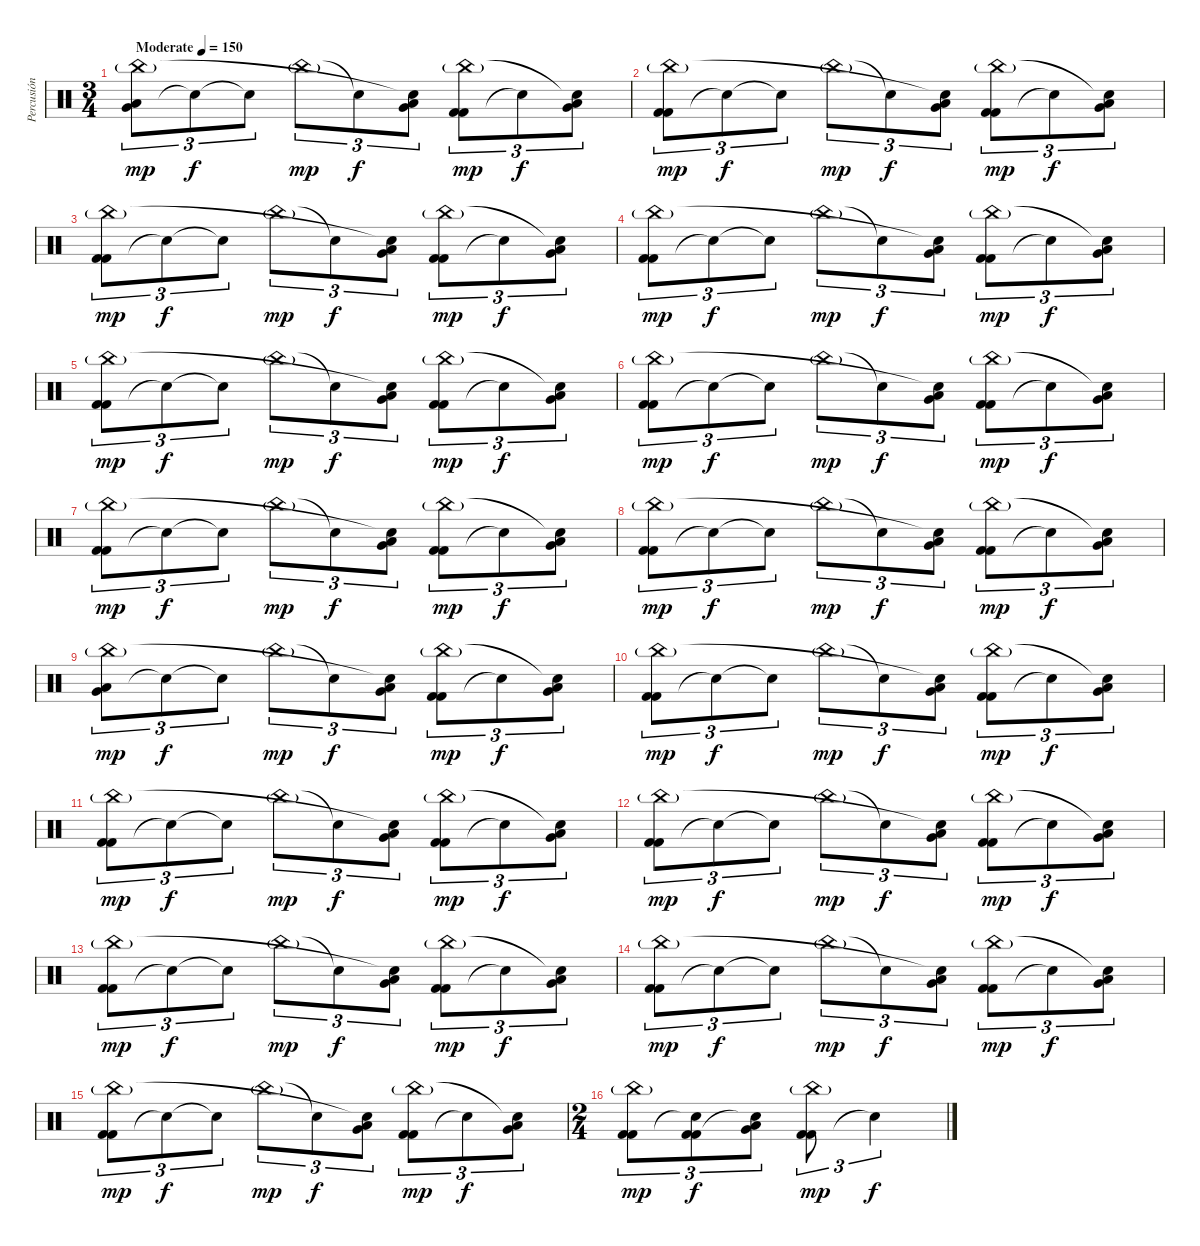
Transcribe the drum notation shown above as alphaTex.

\track ("Percusión" "Percusión") {instrument percussion}
\staff {score}
\articulation defaults
\ts (3 4)
\tempo (150 "Moderate")
\clef neutral
\ks c
("Low Floor Tom (hit)" "Very Low Tom (hit)" "China (hit)"{g}).8{tu (3 2) dy mp} "Snare (hit)"{t}.8{tu (3 2) dy f} "Snare (hit)"{t}.8{tu (3 2)} "China (hit)"{g}.8{tu (3 2) dy mp} "Snare (hit)"{t}.8{tu (3 2) dy f} ("Low Floor Tom (hit)" "Very Low Tom (hit)" "Snare (hit)"{t}).8{tu (3 2)} ("Kick (hit) 2" "Kick (hit) 2" "China (hit)"{g}).8{tu (3 2) dy mp} "Snare (hit)"{t}.8{tu (3 2) dy f} ("Low Floor Tom (hit)" "Very Low Tom (hit)" "Snare (hit)"{t}).8{tu (3 2)} |
("Kick (hit) 2" "Kick (hit) 2" "China (hit)"{g}).8{tu (3 2) dy mp} "Snare (hit)"{t}.8{tu (3 2) dy f} "Snare (hit)"{t}.8{tu (3 2)} "China (hit)"{g}.8{tu (3 2) dy mp} "Snare (hit)"{t}.8{tu (3 2) dy f} ("Low Floor Tom (hit)" "Very Low Tom (hit)" "Snare (hit)"{t}).8{tu (3 2)} ("Kick (hit) 2" "Kick (hit) 2" "China (hit)"{g}).8{tu (3 2) dy mp} "Snare (hit)"{t}.8{tu (3 2) dy f} ("Low Floor Tom (hit)" "Very Low Tom (hit)" "Snare (hit)"{t}).8{tu (3 2)} |
("Kick (hit) 2" "Kick (hit) 2" "China (hit)"{g}).8{tu (3 2) dy mp} "Snare (hit)"{t}.8{tu (3 2) dy f} "Snare (hit)"{t}.8{tu (3 2)} "China (hit)"{g}.8{tu (3 2) dy mp} "Snare (hit)"{t}.8{tu (3 2) dy f} ("Low Floor Tom (hit)" "Very Low Tom (hit)" "Snare (hit)"{t}).8{tu (3 2)} ("Kick (hit) 2" "Kick (hit) 2" "China (hit)"{g}).8{tu (3 2) dy mp} "Snare (hit)"{t}.8{tu (3 2) dy f} ("Low Floor Tom (hit)" "Very Low Tom (hit)" "Snare (hit)"{t}).8{tu (3 2)} |
("Kick (hit) 2" "Kick (hit) 2" "China (hit)"{g}).8{tu (3 2) dy mp} "Snare (hit)"{t}.8{tu (3 2) dy f} "Snare (hit)"{t}.8{tu (3 2)} "China (hit)"{g}.8{tu (3 2) dy mp} "Snare (hit)"{t}.8{tu (3 2) dy f} ("Low Floor Tom (hit)" "Very Low Tom (hit)" "Snare (hit)"{t}).8{tu (3 2)} ("Kick (hit) 2" "Kick (hit) 2" "China (hit)"{g}).8{tu (3 2) dy mp} "Snare (hit)"{t}.8{tu (3 2) dy f} ("Low Floor Tom (hit)" "Very Low Tom (hit)" "Snare (hit)"{t}).8{tu (3 2)} |
("Kick (hit) 2" "Kick (hit) 2" "China (hit)"{g}).8{tu (3 2) dy mp} "Snare (hit)"{t}.8{tu (3 2) dy f} "Snare (hit)"{t}.8{tu (3 2)} "China (hit)"{g}.8{tu (3 2) dy mp} "Snare (hit)"{t}.8{tu (3 2) dy f} ("Low Floor Tom (hit)" "Very Low Tom (hit)" "Snare (hit)"{t}).8{tu (3 2)} ("Kick (hit) 2" "Kick (hit) 2" "China (hit)"{g}).8{tu (3 2) dy mp} "Snare (hit)"{t}.8{tu (3 2) dy f} ("Low Floor Tom (hit)" "Very Low Tom (hit)" "Snare (hit)"{t}).8{tu (3 2)} |
("Kick (hit) 2" "Kick (hit) 2" "China (hit)"{g}).8{tu (3 2) dy mp} "Snare (hit)"{t}.8{tu (3 2) dy f} "Snare (hit)"{t}.8{tu (3 2)} "China (hit)"{g}.8{tu (3 2) dy mp} "Snare (hit)"{t}.8{tu (3 2) dy f} ("Low Floor Tom (hit)" "Very Low Tom (hit)" "Snare (hit)"{t}).8{tu (3 2)} ("Kick (hit) 2" "Kick (hit) 2" "China (hit)"{g}).8{tu (3 2) dy mp} "Snare (hit)"{t}.8{tu (3 2) dy f} ("Low Floor Tom (hit)" "Very Low Tom (hit)" "Snare (hit)"{t}).8{tu (3 2)} |
("Kick (hit) 2" "Kick (hit) 2" "China (hit)"{g}).8{tu (3 2) dy mp} "Snare (hit)"{t}.8{tu (3 2) dy f} "Snare (hit)"{t}.8{tu (3 2)} "China (hit)"{g}.8{tu (3 2) dy mp} "Snare (hit)"{t}.8{tu (3 2) dy f} ("Low Floor Tom (hit)" "Very Low Tom (hit)" "Snare (hit)"{t}).8{tu (3 2)} ("Kick (hit) 2" "Kick (hit) 2" "China (hit)"{g}).8{tu (3 2) dy mp} "Snare (hit)"{t}.8{tu (3 2) dy f} ("Low Floor Tom (hit)" "Very Low Tom (hit)" "Snare (hit)"{t}).8{tu (3 2)} |
("Kick (hit) 2" "Kick (hit) 2" "China (hit)"{g}).8{tu (3 2) dy mp} "Snare (hit)"{t}.8{tu (3 2) dy f} "Snare (hit)"{t}.8{tu (3 2)} "China (hit)"{g}.8{tu (3 2) dy mp} "Snare (hit)"{t}.8{tu (3 2) dy f} ("Low Floor Tom (hit)" "Very Low Tom (hit)" "Snare (hit)"{t}).8{tu (3 2)} ("Kick (hit) 2" "Kick (hit) 2" "China (hit)"{g}).8{tu (3 2) dy mp} "Snare (hit)"{t}.8{tu (3 2) dy f} ("Low Floor Tom (hit)" "Very Low Tom (hit)" "Snare (hit)"{t}).8{tu (3 2)} |
("Low Floor Tom (hit)" "Very Low Tom (hit)" "China (hit)"{g}).8{tu (3 2) dy mp} "Snare (hit)"{t}.8{tu (3 2) dy f} "Snare (hit)"{t}.8{tu (3 2)} "China (hit)"{g}.8{tu (3 2) dy mp} "Snare (hit)"{t}.8{tu (3 2) dy f} ("Low Floor Tom (hit)" "Very Low Tom (hit)" "Snare (hit)"{t}).8{tu (3 2)} ("Kick (hit) 2" "Kick (hit) 2" "China (hit)"{g}).8{tu (3 2) dy mp} "Snare (hit)"{t}.8{tu (3 2) dy f} ("Low Floor Tom (hit)" "Very Low Tom (hit)" "Snare (hit)"{t}).8{tu (3 2)} |
("Kick (hit) 2" "Kick (hit) 2" "China (hit)"{g}).8{tu (3 2) dy mp} "Snare (hit)"{t}.8{tu (3 2) dy f} "Snare (hit)"{t}.8{tu (3 2)} "China (hit)"{g}.8{tu (3 2) dy mp} "Snare (hit)"{t}.8{tu (3 2) dy f} ("Low Floor Tom (hit)" "Very Low Tom (hit)" "Snare (hit)"{t}).8{tu (3 2)} ("Kick (hit) 2" "Kick (hit) 2" "China (hit)"{g}).8{tu (3 2) dy mp} "Snare (hit)"{t}.8{tu (3 2) dy f} ("Low Floor Tom (hit)" "Very Low Tom (hit)" "Snare (hit)"{t}).8{tu (3 2)} |
("Kick (hit) 2" "Kick (hit) 2" "China (hit)"{g}).8{tu (3 2) dy mp} "Snare (hit)"{t}.8{tu (3 2) dy f} "Snare (hit)"{t}.8{tu (3 2)} "China (hit)"{g}.8{tu (3 2) dy mp} "Snare (hit)"{t}.8{tu (3 2) dy f} ("Low Floor Tom (hit)" "Very Low Tom (hit)" "Snare (hit)"{t}).8{tu (3 2)} ("Kick (hit) 2" "Kick (hit) 2" "China (hit)"{g}).8{tu (3 2) dy mp} "Snare (hit)"{t}.8{tu (3 2) dy f} ("Low Floor Tom (hit)" "Very Low Tom (hit)" "Snare (hit)"{t}).8{tu (3 2)} |
("Kick (hit) 2" "Kick (hit) 2" "China (hit)"{g}).8{tu (3 2) dy mp} "Snare (hit)"{t}.8{tu (3 2) dy f} "Snare (hit)"{t}.8{tu (3 2)} "China (hit)"{g}.8{tu (3 2) dy mp} "Snare (hit)"{t}.8{tu (3 2) dy f} ("Low Floor Tom (hit)" "Very Low Tom (hit)" "Snare (hit)"{t}).8{tu (3 2)} ("Kick (hit) 2" "Kick (hit) 2" "China (hit)"{g}).8{tu (3 2) dy mp} "Snare (hit)"{t}.8{tu (3 2) dy f} ("Low Floor Tom (hit)" "Very Low Tom (hit)" "Snare (hit)"{t}).8{tu (3 2)} |
("Kick (hit) 2" "Kick (hit) 2" "China (hit)"{g}).8{tu (3 2) dy mp} "Snare (hit)"{t}.8{tu (3 2) dy f} "Snare (hit)"{t}.8{tu (3 2)} "China (hit)"{g}.8{tu (3 2) dy mp} "Snare (hit)"{t}.8{tu (3 2) dy f} ("Low Floor Tom (hit)" "Very Low Tom (hit)" "Snare (hit)"{t}).8{tu (3 2)} ("Kick (hit) 2" "Kick (hit) 2" "China (hit)"{g}).8{tu (3 2) dy mp} "Snare (hit)"{t}.8{tu (3 2) dy f} ("Low Floor Tom (hit)" "Very Low Tom (hit)" "Snare (hit)"{t}).8{tu (3 2)} |
("Kick (hit) 2" "Kick (hit) 2" "China (hit)"{g}).8{tu (3 2) dy mp} "Snare (hit)"{t}.8{tu (3 2) dy f} "Snare (hit)"{t}.8{tu (3 2)} "China (hit)"{g}.8{tu (3 2) dy mp} "Snare (hit)"{t}.8{tu (3 2) dy f} ("Low Floor Tom (hit)" "Very Low Tom (hit)" "Snare (hit)"{t}).8{tu (3 2)} ("Kick (hit) 2" "Kick (hit) 2" "China (hit)"{g}).8{tu (3 2) dy mp} "Snare (hit)"{t}.8{tu (3 2) dy f} ("Low Floor Tom (hit)" "Very Low Tom (hit)" "Snare (hit)"{t}).8{tu (3 2)} |
("Kick (hit) 2" "Kick (hit) 2" "China (hit)"{g}).8{tu (3 2) dy mp} "Snare (hit)"{t}.8{tu (3 2) dy f} "Snare (hit)"{t}.8{tu (3 2)} "China (hit)"{g}.8{tu (3 2) dy mp} "Snare (hit)"{t}.8{tu (3 2) dy f} ("Low Floor Tom (hit)" "Very Low Tom (hit)" "Snare (hit)"{t}).8{tu (3 2)} ("Kick (hit) 2" "Kick (hit) 2" "China (hit)"{g}).8{tu (3 2) dy mp} "Snare (hit)"{t}.8{tu (3 2) dy f} ("Low Floor Tom (hit)" "Very Low Tom (hit)" "Snare (hit)"{t}).8{tu (3 2)} |
\ts (2 4)
("Kick (hit) 2" "Kick (hit) 2" "China (hit)"{g}).8{tu (3 2) dy mp} ("Snare (hit)"{t} "Kick (hit) 2" "Kick (hit) 2").8{tu (3 2) dy f} ("Low Floor Tom (hit)" "Very Low Tom (hit)" "Snare (hit)"{t}).8{tu (3 2)} ("Kick (hit) 2" "Kick (hit) 2" "China (hit)"{g}).8{tu (3 2) dy mp} "Snare (hit)"{t}.4{tu (3 2) dy f}
